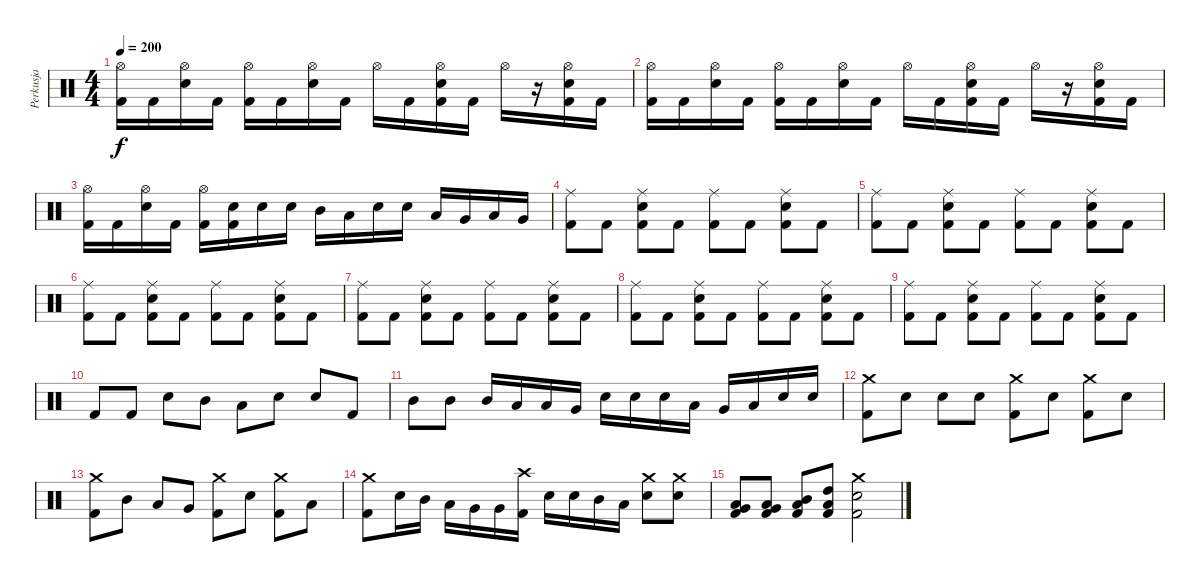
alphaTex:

\track ("Perkusja" "Perkusja") {instrument percussion}
\staff {score}
\articulation defaults
\ts (4 4)
\tempo 200
\clef neutral
\ks c
("Hi-Hat (open)" "Kick (hit) 2").16{dy f} "Kick (hit) 2".16 ("Hi-Hat (open)" "Snare (hit) 2").16 "Kick (hit) 2".16 ("Hi-Hat (open)" "Kick (hit) 2").16 "Kick (hit) 2".16 ("Hi-Hat (open)" "Snare (hit) 2").16 "Kick (hit) 2".16 "Hi-Hat (open)".16 "Kick (hit) 2".16 ("Hi-Hat (open)" "Snare (hit) 2" "Kick (hit) 2").16 "Kick (hit) 2".16 "Hi-Hat (open)".16 r.16 ("Hi-Hat (open)" "Snare (hit) 2" "Kick (hit) 2").16 "Kick (hit) 2".16 |
("Hi-Hat (open)" "Kick (hit) 2").16 "Kick (hit) 2".16 ("Hi-Hat (open)" "Snare (hit) 2").16 "Kick (hit) 2".16 ("Hi-Hat (open)" "Kick (hit) 2").16 "Kick (hit) 2".16 ("Hi-Hat (open)" "Snare (hit) 2").16 "Kick (hit) 2".16 "Hi-Hat (open)".16 "Kick (hit) 2".16 ("Hi-Hat (open)" "Snare (hit) 2" "Kick (hit) 2").16 "Kick (hit) 2".16 "Hi-Hat (open)".16 r.16 ("Hi-Hat (open)" "Snare (hit) 2" "Kick (hit) 2").16 "Kick (hit) 2".16 |
("Hi-Hat (open)" "Kick (hit) 2").16 "Kick (hit) 2".16 ("Hi-Hat (open)" "Snare (hit) 2").16 "Kick (hit) 2".16 ("Hi-Hat (open)" "Kick (hit) 2").16 ("Snare (hit) 2" "Kick (hit) 2").16 "Snare (hit) 2".16 "Snare (hit) 2".16 "Mid Tom (hit)".16 "Low Tom (hit)".16 "Snare (hit) 2".16 "Snare (hit) 2".16 "Low Tom (hit)".16 "Very Low Tom (hit)".16 "Low Floor Tom (hit)".16 "Very Low Tom (hit)".16 |
("Ride (middle)" "Kick (hit) 2").8 "Kick (hit) 2".8 ("Ride (middle)" "Snare (hit) 2" "Kick (hit) 2").8 "Kick (hit) 2".8 ("Ride (middle)" "Kick (hit) 2").8 "Kick (hit) 2".8 ("Ride (middle)" "Snare (hit) 2" "Kick (hit) 2").8 "Kick (hit) 2".8 |
("Ride (middle)" "Kick (hit) 2").8 "Kick (hit) 2".8 ("Ride (middle)" "Snare (hit) 2" "Kick (hit) 2").8 "Kick (hit) 2".8 ("Ride (middle)" "Kick (hit) 2").8 "Kick (hit) 2".8 ("Ride (middle)" "Snare (hit) 2" "Kick (hit) 2").8 "Kick (hit) 2".8 |
("Ride (middle)" "Kick (hit) 2").8 "Kick (hit) 2".8 ("Ride (middle)" "Snare (hit) 2" "Kick (hit) 2").8 "Kick (hit) 2".8 ("Ride (middle)" "Kick (hit) 2").8 "Kick (hit) 2".8 ("Ride (middle)" "Snare (hit) 2" "Kick (hit) 2").8 "Kick (hit) 2".8 |
("Ride (middle)" "Kick (hit) 2").8 "Kick (hit) 2".8 ("Ride (middle)" "Snare (hit) 2" "Kick (hit) 2").8 "Kick (hit) 2".8 ("Ride (middle)" "Kick (hit) 2").8 "Kick (hit) 2".8 ("Ride (middle)" "Snare (hit) 2" "Kick (hit) 2").8 "Kick (hit) 2".8 |
("Ride (middle)" "Kick (hit) 2").8 "Kick (hit) 2".8 ("Ride (middle)" "Snare (hit) 2" "Kick (hit) 2").8 "Kick (hit) 2".8 ("Ride (middle)" "Kick (hit) 2").8 "Kick (hit) 2".8 ("Ride (middle)" "Snare (hit) 2" "Kick (hit) 2").8 "Kick (hit) 2".8 |
("Ride (middle)" "Kick (hit) 2").8 "Kick (hit) 2".8 ("Ride (middle)" "Snare (hit) 2" "Kick (hit) 2").8 "Kick (hit) 2".8 ("Ride (middle)" "Kick (hit) 2").8 "Kick (hit) 2".8 ("Ride (middle)" "Snare (hit) 2" "Kick (hit) 2").8 "Kick (hit) 2".8 |
"Kick (hit) 2".8 "Kick (hit) 2".8 "Snare (hit) 2".8 "Mid Tom (hit)".8 "Low Tom (hit)".8 "Snare (hit) 2".8 "Snare (hit) 2".8 "Kick (hit) 2".8 |
"Mid Tom (hit)".8 "Mid Tom (hit)".8 "Mid Tom (hit)".16 "Low Tom (hit)".16 "Low Tom (hit)".16 "Very Low Tom (hit)".16 "Snare (hit) 2".16 "Snare (hit) 2".16 "Snare (hit) 2".16 "Low Tom (hit)".16 "Very Low Tom (hit)".16 "Low Floor Tom (hit)".16 "Snare (hit) 2".16 "Snare (hit) 2".16 |
("Crash medium (hit)" "Kick (hit) 2").8 "Snare (hit) 2".8 "Snare (hit) 2".8 "Snare (hit) 2".8 ("Crash medium (hit)" "Kick (hit) 2").8 "Snare (hit) 2".8 ("Crash medium (hit)" "Kick (hit) 2").8 "Snare (hit) 2".8 |
("Crash medium (hit)" "Kick (hit) 2").8 "Mid Tom (hit)".8 "Low Tom (hit)".8 "Very Low Tom (hit)".8 ("Crash medium (hit)" "Kick (hit) 2").8 "Snare (hit) 2".8 ("Crash medium (hit)" "Kick (hit) 2").8 "Low Tom (hit)".8 |
("Crash medium (hit)" "Kick (hit) 2").8 "Snare (hit) 2".16 "Mid Tom (hit)".16 "Low Tom (hit)".16 "Very Low Tom (hit)".16 "Very Low Tom (hit)".16 ("Crash high (hit)" "Kick (hit) 2").16 "Snare (hit) 2".16 "Snare (hit) 2".16 "Mid Tom (hit)".16 "Low Tom (hit)".16 ("Crash medium (hit)" "Snare (hit) 2").8 ("Crash medium (hit)" "Snare (hit) 2").8 |
("Low Floor Tom (hit)" "Very Low Tom (hit)" "Kick (hit) 2").8 ("Low Tom (hit)" "Very Low Tom (hit)" "Kick (hit) 2").8 ("Mid Tom (hit)" "Low Tom (hit)" "Kick (hit) 2").8 ("High Tom (hit)" "Low Tom (hit)" "Kick (hit) 2").8 ("Crash medium (hit)" "Snare (hit) 2" "Kick (hit) 2").2
